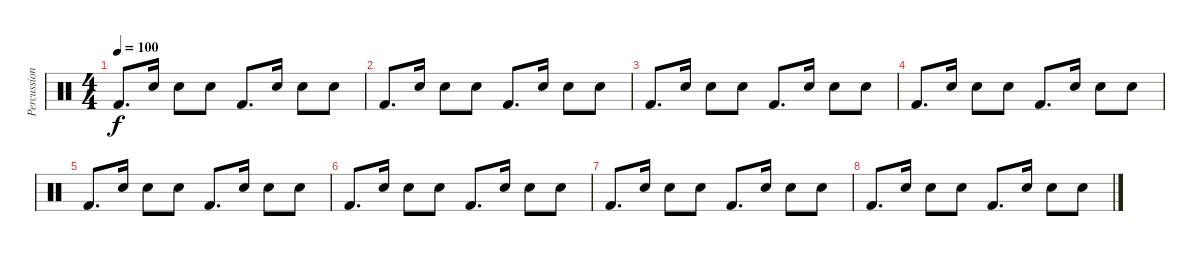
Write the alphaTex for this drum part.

\track ("Percussion" "Percussion") {instrument percussion}
\staff
\articulation defaults
\ts (4 4)
\tempo 100
\clef neutral
\ks c "Kick (hit) 2".8{d dy f} "Hand Clap (hit)".16 "Hand Clap (hit)".8 "Hand Clap (hit)".8 "Kick (hit) 2".8{d} "Hand Clap (hit)".16 "Hand Clap (hit)".8 "Hand Clap (hit)".8
|
"Kick (hit) 2".8{d} "Hand Clap (hit)".16 "Hand Clap (hit)".8 "Hand Clap (hit)".8 "Kick (hit) 2".8{d} "Hand Clap (hit)".16 "Hand Clap (hit)".8 "Hand Clap (hit)".8 |
"Kick (hit) 2".8{d} "Hand Clap (hit)".16 "Hand Clap (hit)".8 "Hand Clap (hit)".8 "Kick (hit) 2".8{d} "Hand Clap (hit)".16 "Hand Clap (hit)".8 "Hand Clap (hit)".8 |
"Kick (hit) 2".8{d} "Hand Clap (hit)".16 "Hand Clap (hit)".8 "Hand Clap (hit)".8 "Kick (hit) 2".8{d} "Hand Clap (hit)".16 "Hand Clap (hit)".8 "Hand Clap (hit)".8 |
"Kick (hit) 2".8{d} "Hand Clap (hit)".16 "Hand Clap (hit)".8 "Hand Clap (hit)".8 "Kick (hit) 2".8{d} "Hand Clap (hit)".16 "Hand Clap (hit)".8 "Hand Clap (hit)".8 |
"Kick (hit) 2".8{d} "Hand Clap (hit)".16 "Hand Clap (hit)".8 "Hand Clap (hit)".8 "Kick (hit) 2".8{d} "Hand Clap (hit)".16 "Hand Clap (hit)".8 "Hand Clap (hit)".8 |
"Kick (hit) 2".8{d} "Hand Clap (hit)".16 "Hand Clap (hit)".8 "Hand Clap (hit)".8 "Kick (hit) 2".8{d} "Hand Clap (hit)".16 "Hand Clap (hit)".8 "Hand Clap (hit)".8 |
"Kick (hit) 2".8{d} "Hand Clap (hit)".16 "Hand Clap (hit)".8 "Hand Clap (hit)".8 "Kick (hit) 2".8{d} "Hand Clap (hit)".16 "Hand Clap (hit)".8 "Hand Clap (hit)".8
